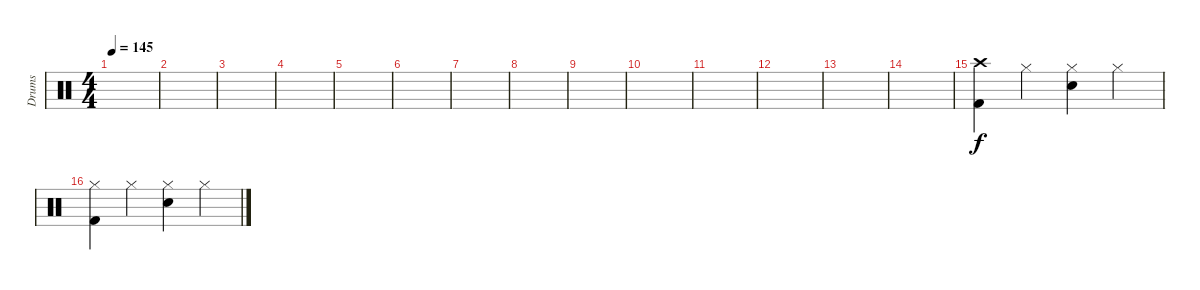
\track ("Drums" "Drums") {instrument percussion}
\staff {score}
\articulation defaults
\ts (4 4)
\tempo 145
\clef neutral
\ks c
|
|
|
|
|
|
|
|
|
|
|
|
|
|
("Crash high (hit)" "Kick (hit) 2").4 "Hi-Hat (closed)".4 ("Hi-Hat (closed)" "Snare (hit) 2").4 "Hi-Hat (closed)".4 |
("Hi-Hat (closed)" "Kick (hit) 2").4 "Hi-Hat (closed)".4 ("Hi-Hat (closed)" "Snare (hit) 2").4 "Hi-Hat (closed)".4
